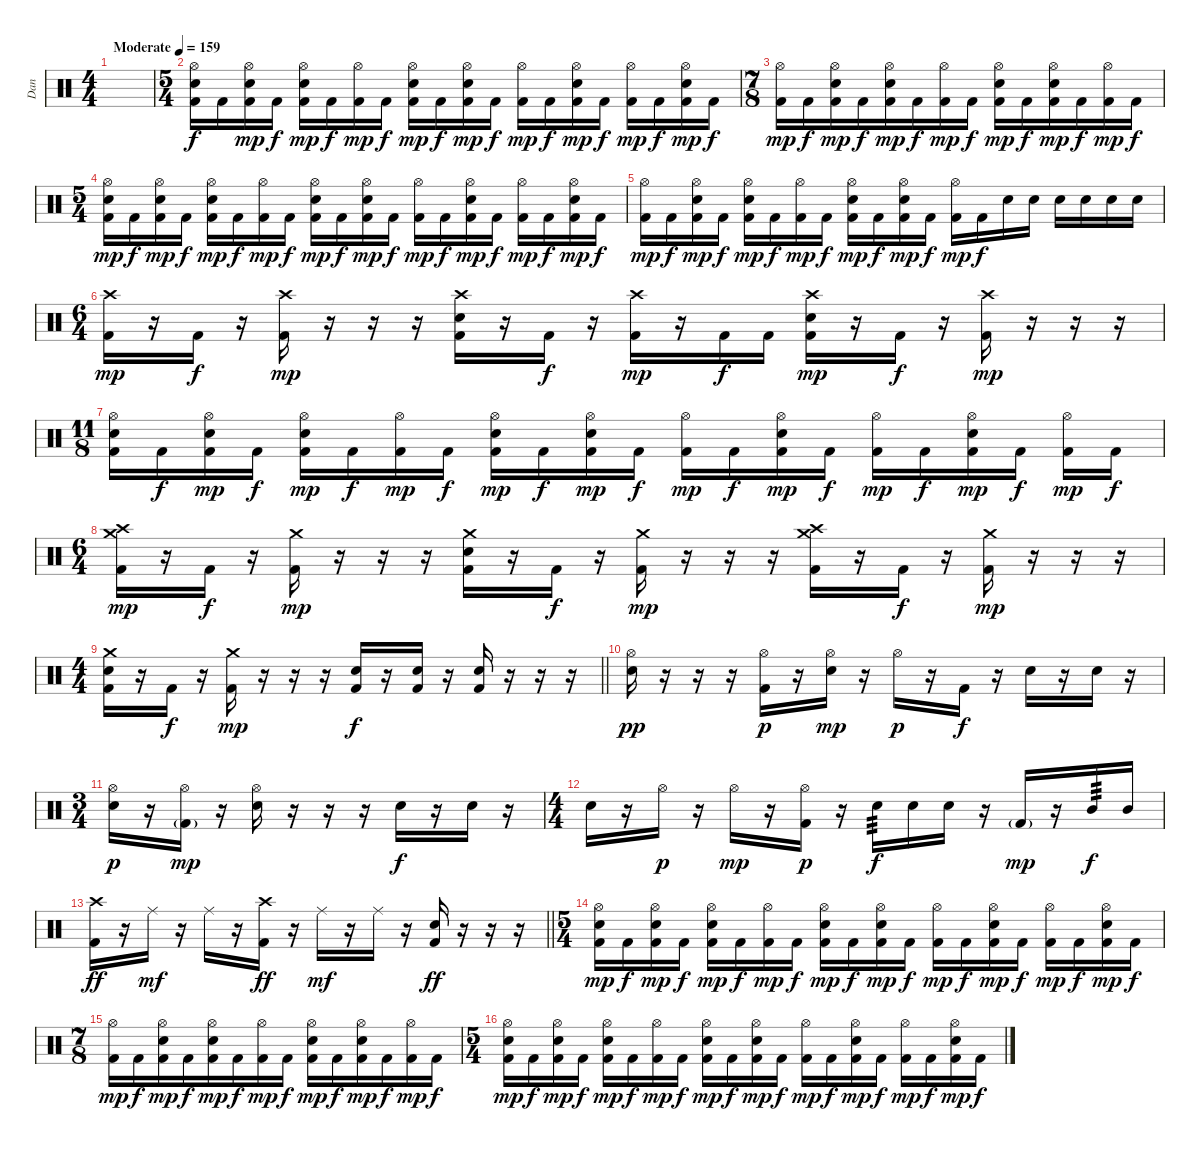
\track ("Dan" "Dan") {instrument percussion}
\staff {score}
\articulation defaults
\ts (4 4)
\tempo (159 "Moderate")
\clef neutral
\ks c
|
\ts (5 4)
("Hi-Hat (open)" "Snare (hit) 2" "Kick (hit) 2").16 "Kick (hit) 2".16{dy f} ("Hi-Hat (open)" "Snare (hit) 2" "Kick (hit) 2").16{dy mp} "Kick (hit) 2".16{dy f} ("Hi-Hat (open)" "Snare (hit) 2" "Kick (hit) 2").16{dy mp} "Kick (hit) 2".16{dy f} ("Hi-Hat (open)" "Kick (hit) 2").16{dy mp} "Kick (hit) 2".16{dy f} ("Hi-Hat (open)" "Snare (hit) 2" "Kick (hit) 2").16{dy mp} "Kick (hit) 2".16{dy f} ("Hi-Hat (open)" "Snare (hit) 2" "Kick (hit) 2").16{dy mp} "Kick (hit) 2".16{dy f} ("Hi-Hat (open)" "Kick (hit) 2").16{dy mp} "Kick (hit) 2".16{dy f} ("Hi-Hat (open)" "Snare (hit) 2" "Kick (hit) 2").16{dy mp} "Kick (hit) 2".16{dy f} ("Hi-Hat (open)" "Kick (hit) 2").16{dy mp} "Kick (hit) 2".16{dy f} ("Hi-Hat (open)" "Snare (hit) 2" "Kick (hit) 2").16{dy mp} "Kick (hit) 2".16{dy f} |
\ts (7 8)
("Hi-Hat (open)" "Kick (hit) 2").16{dy mp} "Kick (hit) 2".16{dy f} ("Hi-Hat (open)" "Snare (hit) 2" "Kick (hit) 2").16{dy mp} "Kick (hit) 2".16{dy f} ("Hi-Hat (open)" "Snare (hit) 2" "Kick (hit) 2").16{dy mp} "Kick (hit) 2".16{dy f} ("Hi-Hat (open)" "Kick (hit) 2").16{dy mp} "Kick (hit) 2".16{dy f} ("Hi-Hat (open)" "Snare (hit) 2" "Kick (hit) 2").16{dy mp} "Kick (hit) 2".16{dy f} ("Hi-Hat (open)" "Snare (hit) 2" "Kick (hit) 2").16{dy mp} "Kick (hit) 2".16{dy f} ("Hi-Hat (open)" "Kick (hit) 2").16{dy mp} "Kick (hit) 2".16{dy f} |
\ts (5 4)
("Hi-Hat (open)" "Snare (hit) 2" "Kick (hit) 2").16{dy mp} "Kick (hit) 2".16{dy f} ("Hi-Hat (open)" "Snare (hit) 2" "Kick (hit) 2").16{dy mp} "Kick (hit) 2".16{dy f} ("Hi-Hat (open)" "Snare (hit) 2" "Kick (hit) 2").16{dy mp} "Kick (hit) 2".16{dy f} ("Hi-Hat (open)" "Kick (hit) 2").16{dy mp} "Kick (hit) 2".16{dy f} ("Hi-Hat (open)" "Snare (hit) 2" "Kick (hit) 2").16{dy mp} "Kick (hit) 2".16{dy f} ("Hi-Hat (open)" "Snare (hit) 2" "Kick (hit) 2").16{dy mp} "Kick (hit) 2".16{dy f} ("Hi-Hat (open)" "Kick (hit) 2").16{dy mp} "Kick (hit) 2".16{dy f} ("Hi-Hat (open)" "Snare (hit) 2" "Kick (hit) 2").16{dy mp} "Kick (hit) 2".16{dy f} ("Hi-Hat (open)" "Kick (hit) 2").16{dy mp} "Kick (hit) 2".16{dy f} ("Hi-Hat (open)" "Snare (hit) 2" "Kick (hit) 2").16{dy mp} "Kick (hit) 2".16{dy f} |
("Hi-Hat (open)" "Kick (hit) 2").16{dy mp} "Kick (hit) 2".16{dy f} ("Hi-Hat (open)" "Snare (hit) 2" "Kick (hit) 2").16{dy mp} "Kick (hit) 2".16{dy f} ("Hi-Hat (open)" "Snare (hit) 2" "Kick (hit) 2").16{dy mp} "Kick (hit) 2".16{dy f} ("Hi-Hat (open)" "Kick (hit) 2").16{dy mp} "Kick (hit) 2".16{dy f} ("Hi-Hat (open)" "Snare (hit) 2" "Kick (hit) 2").16{dy mp} "Kick (hit) 2".16{dy f} ("Hi-Hat (open)" "Snare (hit) 2" "Kick (hit) 2").16{dy mp} "Kick (hit) 2".16{dy f} ("Hi-Hat (open)" "Kick (hit) 2").16{dy mp} "Kick (hit) 2".16{dy f} "Snare (hit) 2".16 "Snare (hit) 2".16 "Snare (hit) 2".16 "Snare (hit) 2".16 "Snare (hit) 2".16 "Snare (hit) 2".16 |
\ts (6 4)
("Crash high (hit)" "Kick (hit) 2").16{dy mp} r.16 "Kick (hit) 2".16{dy f} r.16 ("Crash high (hit)" "Kick (hit) 2").16{dy mp} r.16 r.16 r.16 ("Crash high (hit)" "Snare (hit) 2" "Kick (hit) 2").16 r.16 "Kick (hit) 2".16{dy f} r.16 ("Crash high (hit)" "Kick (hit) 2").16{dy mp} r.16 "Kick (hit) 2".16{dy f} "Kick (hit) 2".16 ("Crash high (hit)" "Snare (hit) 2" "Kick (hit) 2").16{dy mp} r.16 "Kick (hit) 2".16{dy f} r.16 ("Crash high (hit)" "Kick (hit) 2").16{dy mp} r.16 r.16 r.16 |
\ts (11 8)
("Hi-Hat (open)" "Snare (hit) 2" "Kick (hit) 2").16 "Kick (hit) 2".16{dy f} ("Hi-Hat (open)" "Snare (hit) 2" "Kick (hit) 2").16{dy mp} "Kick (hit) 2".16{dy f} ("Hi-Hat (open)" "Snare (hit) 2" "Kick (hit) 2").16{dy mp} "Kick (hit) 2".16{dy f} ("Hi-Hat (open)" "Kick (hit) 2").16{dy mp} "Kick (hit) 2".16{dy f} ("Hi-Hat (open)" "Snare (hit) 2" "Kick (hit) 2").16{dy mp} "Kick (hit) 2".16{dy f} ("Hi-Hat (open)" "Snare (hit) 2" "Kick (hit) 2").16{dy mp} "Kick (hit) 2".16{dy f} ("Hi-Hat (open)" "Kick (hit) 2").16{dy mp} "Kick (hit) 2".16{dy f} ("Hi-Hat (open)" "Snare (hit) 2" "Kick (hit) 2").16{dy mp} "Kick (hit) 2".16{dy f} ("Hi-Hat (open)" "Kick (hit) 2").16{dy mp} "Kick (hit) 2".16{dy f} ("Hi-Hat (open)" "Snare (hit) 2" "Kick (hit) 2").16{dy mp} "Kick (hit) 2".16{dy f} ("Hi-Hat (open)" "Kick (hit) 2").16{dy mp} "Kick (hit) 2".16{dy f} |
\ts (6 4)
("Crash high (hit)" "Crash medium (hit)" "Kick (hit) 2").16{dy mp} r.16 "Kick (hit) 2".16{dy f} r.16 ("Crash medium (hit)" "Kick (hit) 2").16{dy mp} r.16 r.16 r.16 ("Crash medium (hit)" "Snare (hit) 2" "Kick (hit) 2").16 r.16 "Kick (hit) 2".16{dy f} r.16 ("Crash medium (hit)" "Kick (hit) 2").16{dy mp} r.16 r.16 r.16 ("Crash high (hit)" "Crash medium (hit)" "Kick (hit) 2").16 r.16 "Kick (hit) 2".16{dy f} r.16 ("Crash medium (hit)" "Kick (hit) 2").16{dy mp} r.16 r.16 r.16 |
\ts (4 4)
\barLineRight lightlight
("Crash medium (hit)" "Snare (hit) 2" "Kick (hit) 2").16 r.16 "Kick (hit) 2".16{dy f} r.16 ("Crash medium (hit)" "Kick (hit) 2").16{dy mp} r.16 r.16 r.16 ("Snare (hit) 2" "Kick (hit) 2").16{dy f} r.16 ("Snare (hit) 2" "Kick (hit) 2").16 r.16 ("Snare (hit) 2" "Kick (hit) 2").16 r.16 r.16 r.16 |
("Hi-Hat (open)" "Snare (hit) 2").16{dy pp} r.16 r.16 r.16 ("Hi-Hat (open)" "Kick (hit) 2").16{dy p} r.16 ("Hi-Hat (open)" "Snare (hit) 2").16{dy mp} r.16 "Hi-Hat (open)".16{dy p} r.16 "Kick (hit) 2".16{dy f} r.16 "Snare (hit) 2".16 r.16 "Snare (hit) 2".16 r.16 |
\ts (3 4)
("Hi-Hat (open)" "Snare (hit) 2").16{dy p} r.16 ("Hi-Hat (open)" "Kick (hit) 2"{g}).16{dy mp} r.16 ("Hi-Hat (open)" "Snare (hit) 2").16 r.16 r.16 r.16 "Snare (hit) 2".16{dy f} r.16 "Snare (hit) 2".16 r.16 |
\ts (4 4)
"Snare (hit) 2".16 r.16 "Hi-Hat (open)".16{dy p} r.16 "Hi-Hat (open)".16{dy mp} r.16 ("Hi-Hat (open)" "Kick (hit) 2").16{dy p} r.16 "Snare (hit) 2".16{tp 3 dy f} "Snare (hit) 2".16 "Snare (hit) 2".16 r.16 "Kick (hit) 2"{g}.16{dy mp} r.16 "Mid Tom (hit)".16{tp 3 dy f} "Mid Tom (hit)".16 |
\barLineRight lightlight
("Crash high (hit)" "Kick (hit) 2").16{dy ff} r.16 "Ride (middle)".16{dy mf} r.16 "Ride (middle)".16 r.16 ("Crash high (hit)" "Kick (hit) 2").16{dy ff} r.16 "Ride (middle)".16{dy mf} r.16 "Ride (middle)".16 r.16 ("Snare (hit) 2" "Kick (hit) 2").16{dy ff} r.16 r.16 r.16 |
\ts (5 4)
("Hi-Hat (open)" "Snare (hit) 2" "Kick (hit) 2").16{dy mp} "Kick (hit) 2".16{dy f} ("Hi-Hat (open)" "Snare (hit) 2" "Kick (hit) 2").16{dy mp} "Kick (hit) 2".16{dy f} ("Hi-Hat (open)" "Snare (hit) 2" "Kick (hit) 2").16{dy mp} "Kick (hit) 2".16{dy f} ("Hi-Hat (open)" "Kick (hit) 2").16{dy mp} "Kick (hit) 2".16{dy f} ("Hi-Hat (open)" "Snare (hit) 2" "Kick (hit) 2").16{dy mp} "Kick (hit) 2".16{dy f} ("Hi-Hat (open)" "Snare (hit) 2" "Kick (hit) 2").16{dy mp} "Kick (hit) 2".16{dy f} ("Hi-Hat (open)" "Kick (hit) 2").16{dy mp} "Kick (hit) 2".16{dy f} ("Hi-Hat (open)" "Snare (hit) 2" "Kick (hit) 2").16{dy mp} "Kick (hit) 2".16{dy f} ("Hi-Hat (open)" "Kick (hit) 2").16{dy mp} "Kick (hit) 2".16{dy f} ("Hi-Hat (open)" "Snare (hit) 2" "Kick (hit) 2").16{dy mp} "Kick (hit) 2".16{dy f} |
\ts (7 8)
("Hi-Hat (open)" "Kick (hit) 2").16{dy mp} "Kick (hit) 2".16{dy f} ("Hi-Hat (open)" "Snare (hit) 2" "Kick (hit) 2").16{dy mp} "Kick (hit) 2".16{dy f} ("Hi-Hat (open)" "Snare (hit) 2" "Kick (hit) 2").16{dy mp} "Kick (hit) 2".16{dy f} ("Hi-Hat (open)" "Kick (hit) 2").16{dy mp} "Kick (hit) 2".16{dy f} ("Hi-Hat (open)" "Snare (hit) 2" "Kick (hit) 2").16{dy mp} "Kick (hit) 2".16{dy f} ("Hi-Hat (open)" "Snare (hit) 2" "Kick (hit) 2").16{dy mp} "Kick (hit) 2".16{dy f} ("Hi-Hat (open)" "Kick (hit) 2").16{dy mp} "Kick (hit) 2".16{dy f} |
\ts (5 4)
("Hi-Hat (open)" "Snare (hit) 2" "Kick (hit) 2").16{dy mp} "Kick (hit) 2".16{dy f} ("Hi-Hat (open)" "Snare (hit) 2" "Kick (hit) 2").16{dy mp} "Kick (hit) 2".16{dy f} ("Hi-Hat (open)" "Snare (hit) 2" "Kick (hit) 2").16{dy mp} "Kick (hit) 2".16{dy f} ("Hi-Hat (open)" "Kick (hit) 2").16{dy mp} "Kick (hit) 2".16{dy f} ("Hi-Hat (open)" "Snare (hit) 2" "Kick (hit) 2").16{dy mp} "Kick (hit) 2".16{dy f} ("Hi-Hat (open)" "Snare (hit) 2" "Kick (hit) 2").16{dy mp} "Kick (hit) 2".16{dy f} ("Hi-Hat (open)" "Kick (hit) 2").16{dy mp} "Kick (hit) 2".16{dy f} ("Hi-Hat (open)" "Snare (hit) 2" "Kick (hit) 2").16{dy mp} "Kick (hit) 2".16{dy f} ("Hi-Hat (open)" "Kick (hit) 2").16{dy mp} "Kick (hit) 2".16{dy f} ("Hi-Hat (open)" "Snare (hit) 2" "Kick (hit) 2").16{dy mp} "Kick (hit) 2".16{dy f}
